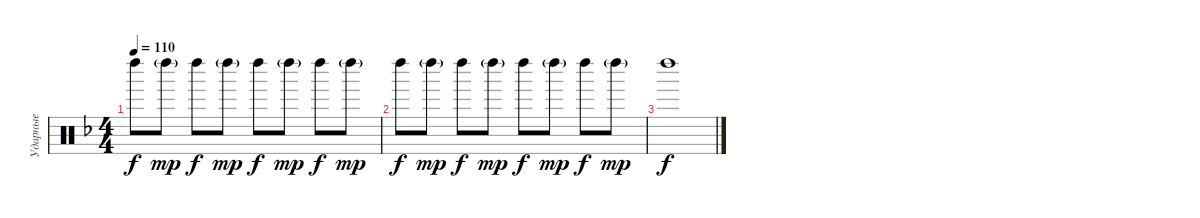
\track ("Ударные" "Ударные") {instrument percussion}
\staff {score}
\articulation defaults
\ts (4 4)
\tempo 110
\clef neutral
\ks dminor "Left Maraca (hit)".8{dy f} "Left Maraca (hit)"{g}.8{dy mp} "Left Maraca (hit)".8{dy f} "Left Maraca (hit)"{g}.8{dy mp} "Left Maraca (hit)".8{dy f} "Left Maraca (hit)"{g}.8{dy mp} "Left Maraca (hit)".8{dy f} "Left Maraca (hit)"{g}.8{dy mp}
|
"Left Maraca (hit)".8{dy f} "Left Maraca (hit)"{g}.8{dy mp} "Left Maraca (hit)".8{dy f} "Left Maraca (hit)"{g}.8{dy mp} "Left Maraca (hit)".8{dy f} "Left Maraca (hit)"{g}.8{dy mp} "Left Maraca (hit)".8{dy f} "Left Maraca (hit)"{g}.8{dy mp} |
"Left Maraca (hit)".1{dy f}
